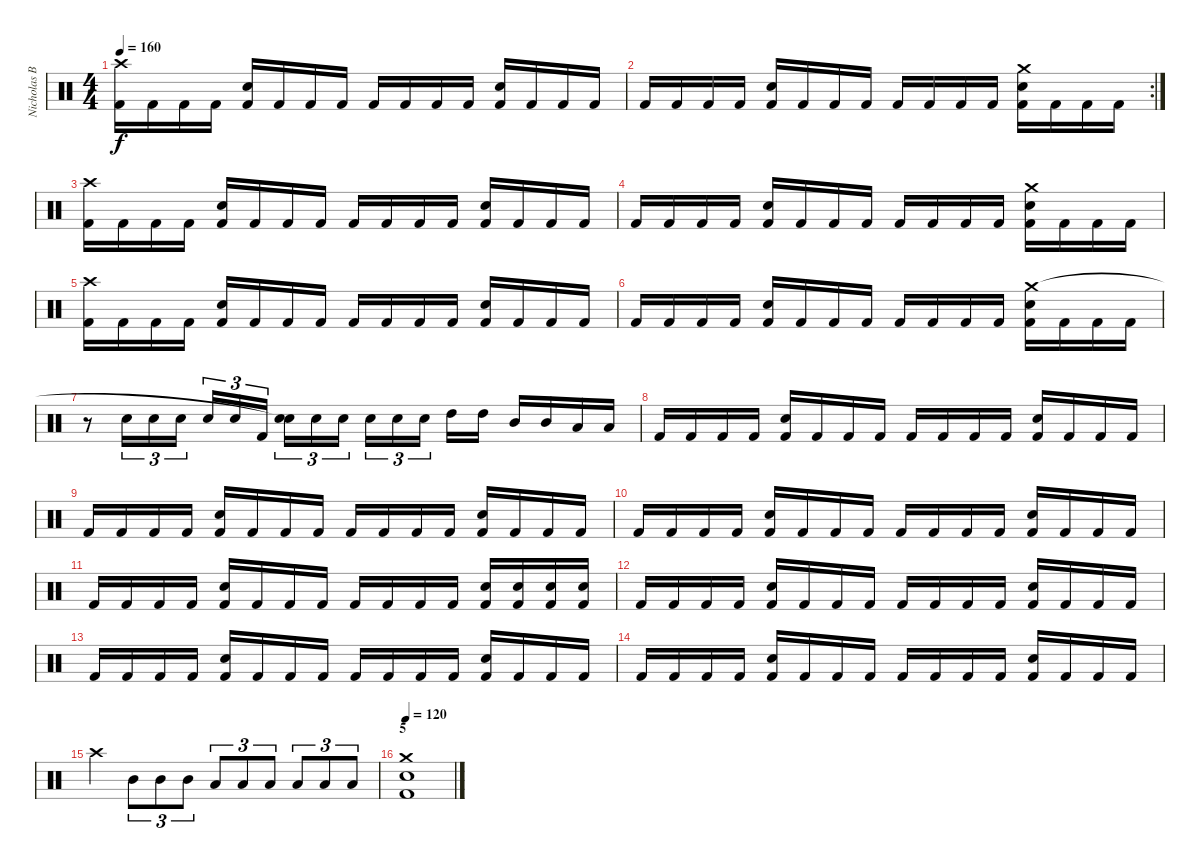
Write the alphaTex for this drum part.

\track ("Nicholas Barker" "Nicholas B") {instrument percussion}
\staff {score}
\articulation defaults
\ts (4 4)
\tempo 160
\clef neutral
\ks c
("Kick (hit) 2" "Crash high (hit)").16{dy f} "Kick (hit) 2".16 "Kick (hit) 2".16 "Kick (hit) 2".16 ("Kick (hit) 2" "Snare (hit) 2").16 "Kick (hit) 2".16 "Kick (hit) 2".16 "Kick (hit) 2".16 "Kick (hit) 2".16 "Kick (hit) 2".16 "Kick (hit) 2".16 "Kick (hit) 2".16 ("Kick (hit) 2" "Snare (hit) 2").16 "Kick (hit) 2".16 "Kick (hit) 2".16 "Kick (hit) 2".16 |
\rc 2 "Kick (hit) 2".16 "Kick (hit) 2".16 "Kick (hit) 2".16 "Kick (hit) 2".16
("Kick (hit) 2" "Snare (hit) 2").16 "Kick (hit) 2".16 "Kick (hit) 2".16 "Kick (hit) 2".16 "Kick (hit) 2".16 "Kick (hit) 2".16 "Kick (hit) 2".16 "Kick (hit) 2".16 ("Kick (hit) 2" "Crash medium (hit)" "Snare (hit) 2").16 "Kick (hit) 2".16 "Kick (hit) 2".16 "Kick (hit) 2".16 |
("Kick (hit) 2" "Crash high (hit)").16 "Kick (hit) 2".16 "Kick (hit) 2".16 "Kick (hit) 2".16 ("Kick (hit) 2" "Snare (hit) 2").16 "Kick (hit) 2".16 "Kick (hit) 2".16 "Kick (hit) 2".16 "Kick (hit) 2".16 "Kick (hit) 2".16 "Kick (hit) 2".16 "Kick (hit) 2".16 ("Kick (hit) 2" "Snare (hit) 2").16 "Kick (hit) 2".16 "Kick (hit) 2".16 "Kick (hit) 2".16 |
"Kick (hit) 2".16 "Kick (hit) 2".16 "Kick (hit) 2".16 "Kick (hit) 2".16 ("Kick (hit) 2" "Snare (hit) 2").16 "Kick (hit) 2".16 "Kick (hit) 2".16 "Kick (hit) 2".16 "Kick (hit) 2".16 "Kick (hit) 2".16 "Kick (hit) 2".16 "Kick (hit) 2".16 ("Kick (hit) 2" "Crash medium (hit)" "Snare (hit) 2").16 "Kick (hit) 2".16 "Kick (hit) 2".16 "Kick (hit) 2".16 |
("Kick (hit) 2" "Crash high (hit)").16 "Kick (hit) 2".16 "Kick (hit) 2".16 "Kick (hit) 2".16 ("Kick (hit) 2" "Snare (hit) 2").16 "Kick (hit) 2".16 "Kick (hit) 2".16 "Kick (hit) 2".16 "Kick (hit) 2".16 "Kick (hit) 2".16 "Kick (hit) 2".16 "Kick (hit) 2".16 ("Kick (hit) 2" "Snare (hit) 2").16 "Kick (hit) 2".16 "Kick (hit) 2".16 "Kick (hit) 2".16 |
"Kick (hit) 2".16 "Kick (hit) 2".16 "Kick (hit) 2".16 "Kick (hit) 2".16 ("Kick (hit) 2" "Snare (hit) 2").16 "Kick (hit) 2".16 "Kick (hit) 2".16 "Kick (hit) 2".16 "Kick (hit) 2".16 "Kick (hit) 2".16 "Kick (hit) 2".16 "Kick (hit) 2".16 ("Kick (hit) 2" "Crash medium (hit)" "Snare (hit) 2").16 "Kick (hit) 2".16 "Kick (hit) 2".16 "Kick (hit) 2".16 |
r.8 "Snare (hit) 2".16{tu (3 2)} "Snare (hit) 2".16{tu (3 2)} "Snare (hit) 2".16{tu (3 2)} "Snare (hit) 2".16{tu (3 2)} "Snare (hit) 2".16{tu (3 2)} "Kick (hit) 2".16{tu (3 2)} ("Snare (hit) 2" "Snare (hit)"{t}).16{tu (3 2)} "Snare (hit) 2".16{tu (3 2)} "Snare (hit) 2".16{tu (3 2)} "Snare (hit) 2".16{tu (3 2)} "Snare (hit) 2".16{tu (3 2)} "Snare (hit) 2".16{tu (3 2)} "High Tom (hit)".16 "High Tom (hit)".16 "Mid Tom (hit)".16 "Mid Tom (hit)".16 "Low Tom (hit)".16 "Low Tom (hit)".16 |
"Kick (hit) 2".16 "Kick (hit) 2".16 "Kick (hit) 2".16 "Kick (hit) 2".16 ("Kick (hit) 2" "Snare (hit) 2").16 "Kick (hit) 2".16 "Kick (hit) 2".16 "Kick (hit) 2".16 "Kick (hit) 2".16 "Kick (hit) 2".16 "Kick (hit) 2".16 "Kick (hit) 2".16 ("Kick (hit) 2" "Snare (hit) 2").16 "Kick (hit) 2".16 "Kick (hit) 2".16 "Kick (hit) 2".16 |
"Kick (hit) 2".16 "Kick (hit) 2".16 "Kick (hit) 2".16 "Kick (hit) 2".16 ("Kick (hit) 2" "Snare (hit) 2").16 "Kick (hit) 2".16 "Kick (hit) 2".16 "Kick (hit) 2".16 "Kick (hit) 2".16 "Kick (hit) 2".16 "Kick (hit) 2".16 "Kick (hit) 2".16 ("Kick (hit) 2" "Snare (hit) 2").16 "Kick (hit) 2".16 "Kick (hit) 2".16 "Kick (hit) 2".16 |
"Kick (hit) 2".16 "Kick (hit) 2".16 "Kick (hit) 2".16 "Kick (hit) 2".16 ("Kick (hit) 2" "Snare (hit) 2").16 "Kick (hit) 2".16 "Kick (hit) 2".16 "Kick (hit) 2".16 "Kick (hit) 2".16 "Kick (hit) 2".16 "Kick (hit) 2".16 "Kick (hit) 2".16 ("Kick (hit) 2" "Snare (hit) 2").16 "Kick (hit) 2".16 "Kick (hit) 2".16 "Kick (hit) 2".16 |
"Kick (hit) 2".16 "Kick (hit) 2".16 "Kick (hit) 2".16 "Kick (hit) 2".16 ("Kick (hit) 2" "Snare (hit) 2").16 "Kick (hit) 2".16 "Kick (hit) 2".16 "Kick (hit) 2".16 "Kick (hit) 2".16 "Kick (hit) 2".16 "Kick (hit) 2".16 "Kick (hit) 2".16 ("Kick (hit) 2" "Snare (hit) 2").16 ("Kick (hit) 2" "Snare (hit) 2").16 ("Kick (hit) 2" "Snare (hit) 2").16 ("Kick (hit) 2" "Snare (hit) 2").16 |
"Kick (hit) 2".16 "Kick (hit) 2".16 "Kick (hit) 2".16 "Kick (hit) 2".16 ("Kick (hit) 2" "Snare (hit) 2").16 "Kick (hit) 2".16 "Kick (hit) 2".16 "Kick (hit) 2".16 "Kick (hit) 2".16 "Kick (hit) 2".16 "Kick (hit) 2".16 "Kick (hit) 2".16 ("Kick (hit) 2" "Snare (hit) 2").16 "Kick (hit) 2".16 "Kick (hit) 2".16 "Kick (hit) 2".16 |
"Kick (hit) 2".16 "Kick (hit) 2".16 "Kick (hit) 2".16 "Kick (hit) 2".16 ("Kick (hit) 2" "Snare (hit) 2").16 "Kick (hit) 2".16 "Kick (hit) 2".16 "Kick (hit) 2".16 "Kick (hit) 2".16 "Kick (hit) 2".16 "Kick (hit) 2".16 "Kick (hit) 2".16 ("Kick (hit) 2" "Snare (hit) 2").16 "Kick (hit) 2".16 "Kick (hit) 2".16 "Kick (hit) 2".16 |
"Kick (hit) 2".16 "Kick (hit) 2".16 "Kick (hit) 2".16 "Kick (hit) 2".16 ("Kick (hit) 2" "Snare (hit) 2").16 "Kick (hit) 2".16 "Kick (hit) 2".16 "Kick (hit) 2".16 "Kick (hit) 2".16 "Kick (hit) 2".16 "Kick (hit) 2".16 "Kick (hit) 2".16 ("Kick (hit) 2" "Snare (hit) 2").16 "Kick (hit) 2".16 "Kick (hit) 2".16 "Kick (hit) 2".16 |
"Crash high (hit)".4 "Mid Tom (hit)".8{tu (3 2)} "Mid Tom (hit)".8{tu (3 2)} "Mid Tom (hit)".8{tu (3 2)} "Low Tom (hit)".8{tu (3 2)} "Low Tom (hit)".8{tu (3 2)} "Low Tom (hit)".8{tu (3 2)} "Low Floor Tom (hit)".8{tu (3 2)} "Low Floor Tom (hit)".8{tu (3 2)} "Low Floor Tom (hit)".8{tu (3 2)} |
\section ("" "5")
\tempo 120
("Crash medium (hit)" "Snare (hit) 2" "Kick (hit) 2").1
